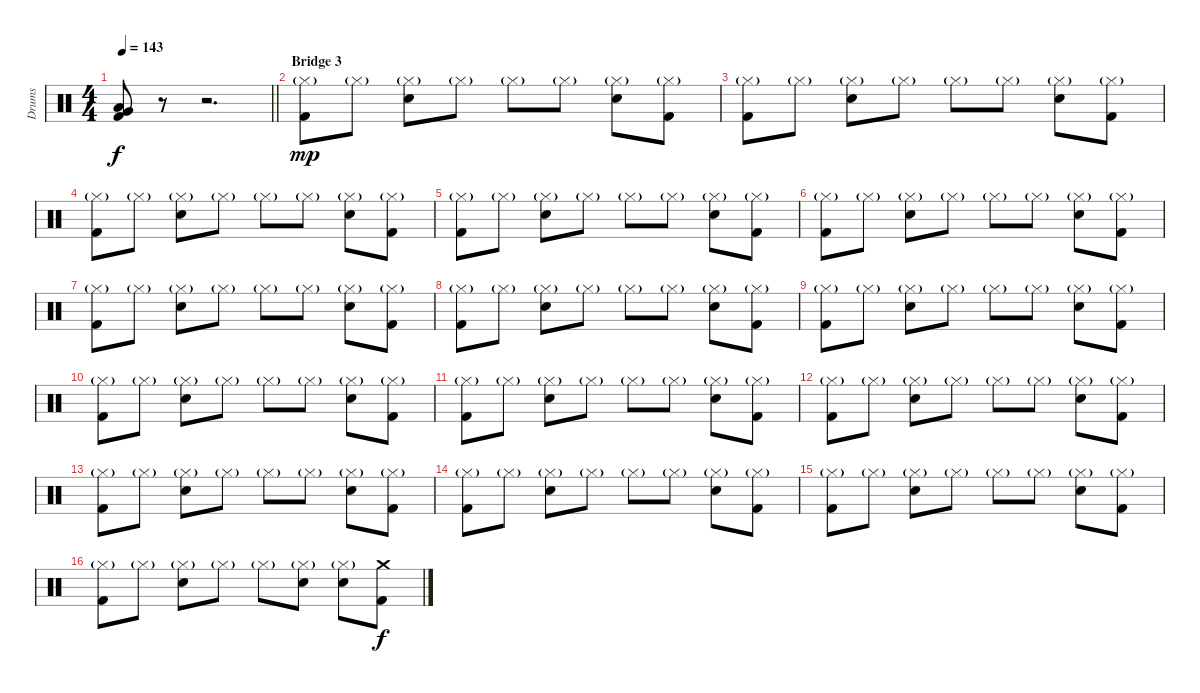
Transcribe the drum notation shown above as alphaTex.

\track ("Drums" "Drums") {instrument percussion}
\staff {score}
\articulation defaults
\ts (4 4)
\tempo 143
\clef neutral
\barLineRight lightlight
\ks c
("Low Floor Tom (hit)" "Very Low Tom (hit)" "Kick (hit) 2").8{dy f} r.8 r.2{d} |
\section ("" "Bridge 3")
("Hi-Hat (closed)"{g} "Kick (hit) 2").8{dy mp} "Hi-Hat (closed)"{g}.8 ("Hi-Hat (closed)"{g} "Electric Snare (hit)").8 "Hi-Hat (closed)"{g}.8 "Hi-Hat (closed)"{g}.8 "Hi-Hat (closed)"{g}.8 ("Hi-Hat (closed)"{g} "Electric Snare (hit)").8 ("Hi-Hat (closed)"{g} "Kick (hit) 2").8 |
("Hi-Hat (closed)"{g} "Kick (hit) 2").8 "Hi-Hat (closed)"{g}.8 ("Hi-Hat (closed)"{g} "Electric Snare (hit)").8 "Hi-Hat (closed)"{g}.8 "Hi-Hat (closed)"{g}.8 "Hi-Hat (closed)"{g}.8 ("Hi-Hat (closed)"{g} "Electric Snare (hit)").8 ("Hi-Hat (closed)"{g} "Kick (hit) 2").8 |
("Hi-Hat (closed)"{g} "Kick (hit) 2").8 "Hi-Hat (closed)"{g}.8 ("Hi-Hat (closed)"{g} "Electric Snare (hit)").8 "Hi-Hat (closed)"{g}.8 "Hi-Hat (closed)"{g}.8 "Hi-Hat (closed)"{g}.8 ("Hi-Hat (closed)"{g} "Electric Snare (hit)").8 ("Hi-Hat (closed)"{g} "Kick (hit) 2").8 |
("Hi-Hat (closed)"{g} "Kick (hit) 2").8 "Hi-Hat (closed)"{g}.8 ("Hi-Hat (closed)"{g} "Electric Snare (hit)").8 "Hi-Hat (closed)"{g}.8 "Hi-Hat (closed)"{g}.8 "Hi-Hat (closed)"{g}.8 ("Hi-Hat (closed)"{g} "Electric Snare (hit)").8 ("Hi-Hat (closed)"{g} "Kick (hit) 2").8 |
("Hi-Hat (closed)"{g} "Kick (hit) 2").8 "Hi-Hat (closed)"{g}.8 ("Hi-Hat (closed)"{g} "Electric Snare (hit)").8 "Hi-Hat (closed)"{g}.8 "Hi-Hat (closed)"{g}.8 "Hi-Hat (closed)"{g}.8 ("Hi-Hat (closed)"{g} "Electric Snare (hit)").8 ("Hi-Hat (closed)"{g} "Kick (hit) 2").8 |
("Hi-Hat (closed)"{g} "Kick (hit) 2").8 "Hi-Hat (closed)"{g}.8 ("Hi-Hat (closed)"{g} "Electric Snare (hit)").8 "Hi-Hat (closed)"{g}.8 "Hi-Hat (closed)"{g}.8 "Hi-Hat (closed)"{g}.8 ("Hi-Hat (closed)"{g} "Electric Snare (hit)").8 ("Hi-Hat (closed)"{g} "Kick (hit) 2").8 |
("Hi-Hat (closed)"{g} "Kick (hit) 2").8 "Hi-Hat (closed)"{g}.8 ("Hi-Hat (closed)"{g} "Electric Snare (hit)").8 "Hi-Hat (closed)"{g}.8 "Hi-Hat (closed)"{g}.8 "Hi-Hat (closed)"{g}.8 ("Hi-Hat (closed)"{g} "Electric Snare (hit)").8 ("Hi-Hat (closed)"{g} "Kick (hit) 2").8 |
("Hi-Hat (closed)"{g} "Kick (hit) 2").8 "Hi-Hat (closed)"{g}.8 ("Hi-Hat (closed)"{g} "Electric Snare (hit)").8 "Hi-Hat (closed)"{g}.8 "Hi-Hat (closed)"{g}.8 "Hi-Hat (closed)"{g}.8 ("Hi-Hat (closed)"{g} "Electric Snare (hit)").8 ("Hi-Hat (closed)"{g} "Kick (hit) 2").8 |
("Hi-Hat (closed)"{g} "Kick (hit) 2").8 "Hi-Hat (closed)"{g}.8 ("Hi-Hat (closed)"{g} "Electric Snare (hit)").8 "Hi-Hat (closed)"{g}.8 "Hi-Hat (closed)"{g}.8 "Hi-Hat (closed)"{g}.8 ("Hi-Hat (closed)"{g} "Electric Snare (hit)").8 ("Hi-Hat (closed)"{g} "Kick (hit) 2").8 |
("Hi-Hat (closed)"{g} "Kick (hit) 2").8 "Hi-Hat (closed)"{g}.8 ("Hi-Hat (closed)"{g} "Electric Snare (hit)").8 "Hi-Hat (closed)"{g}.8 "Hi-Hat (closed)"{g}.8 "Hi-Hat (closed)"{g}.8 ("Hi-Hat (closed)"{g} "Electric Snare (hit)").8 ("Hi-Hat (closed)"{g} "Kick (hit) 2").8 |
("Hi-Hat (closed)"{g} "Kick (hit) 2").8 "Hi-Hat (closed)"{g}.8 ("Hi-Hat (closed)"{g} "Electric Snare (hit)").8 "Hi-Hat (closed)"{g}.8 "Hi-Hat (closed)"{g}.8 "Hi-Hat (closed)"{g}.8 ("Hi-Hat (closed)"{g} "Electric Snare (hit)").8 ("Hi-Hat (closed)"{g} "Kick (hit) 2").8 |
("Hi-Hat (closed)"{g} "Kick (hit) 2").8 "Hi-Hat (closed)"{g}.8 ("Hi-Hat (closed)"{g} "Electric Snare (hit)").8 "Hi-Hat (closed)"{g}.8 "Hi-Hat (closed)"{g}.8 "Hi-Hat (closed)"{g}.8 ("Hi-Hat (closed)"{g} "Electric Snare (hit)").8 ("Hi-Hat (closed)"{g} "Kick (hit) 2").8 |
("Hi-Hat (closed)"{g} "Kick (hit) 2").8 "Hi-Hat (closed)"{g}.8 ("Hi-Hat (closed)"{g} "Electric Snare (hit)").8 "Hi-Hat (closed)"{g}.8 "Hi-Hat (closed)"{g}.8 "Hi-Hat (closed)"{g}.8 ("Hi-Hat (closed)"{g} "Electric Snare (hit)").8 ("Hi-Hat (closed)"{g} "Kick (hit) 2").8 |
("Hi-Hat (closed)"{g} "Kick (hit) 2").8 "Hi-Hat (closed)"{g}.8 ("Hi-Hat (closed)"{g} "Electric Snare (hit)").8 "Hi-Hat (closed)"{g}.8 "Hi-Hat (closed)"{g}.8 "Hi-Hat (closed)"{g}.8 ("Hi-Hat (closed)"{g} "Electric Snare (hit)").8 ("Hi-Hat (closed)"{g} "Kick (hit) 2").8 |
("Hi-Hat (closed)"{g} "Kick (hit) 2").8 "Hi-Hat (closed)"{g}.8 ("Hi-Hat (closed)"{g} "Electric Snare (hit)").8 "Hi-Hat (closed)"{g}.8 "Hi-Hat (closed)"{g}.8 ("Hi-Hat (closed)"{g} "Electric Snare (hit)").8 ("Hi-Hat (closed)"{g} "Electric Snare (hit)").8 ("Crash medium (hit)" "Kick (hit) 2").8{dy f}
